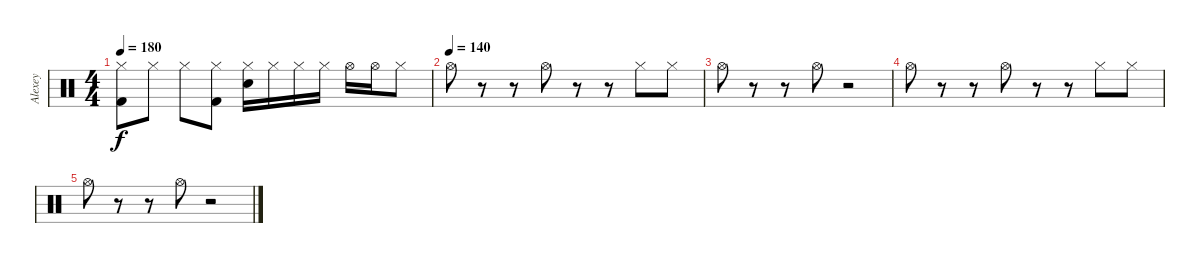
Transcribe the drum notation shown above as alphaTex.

\track ("Alexey" "Alexey") {instrument percussion}
\staff {score}
\articulation defaults
\ts (4 4)
\tempo 180
\clef neutral
\ks c
("Hi-Hat (closed)" "Kick (hit) 2").8{dy f} "Hi-Hat (closed)".8 "Hi-Hat (closed)".8 ("Hi-Hat (closed)" "Kick (hit) 2").8 ("Hi-Hat (closed)" "Snare (hit) 2").16 "Hi-Hat (closed)".16 "Hi-Hat (closed)".16 "Hi-Hat (closed)".16 "Hi-Hat (open)".16 "Hi-Hat (open)".16 "Hi-Hat (closed)".8 |
\tempo (140)
"Hi-Hat (open)".8 r.8 r.8 "Hi-Hat (open)".8 r.8 r.8 "Hi-Hat (closed)".8 "Hi-Hat (closed)".8 |
"Hi-Hat (open)".8 r.8 r.8 "Hi-Hat (open)".8 r.2 |
"Hi-Hat (open)".8 r.8 r.8 "Hi-Hat (open)".8 r.8 r.8 "Hi-Hat (closed)".8 "Hi-Hat (closed)".8 |
"Hi-Hat (open)".8 r.8 r.8 "Hi-Hat (open)".8 r.2
